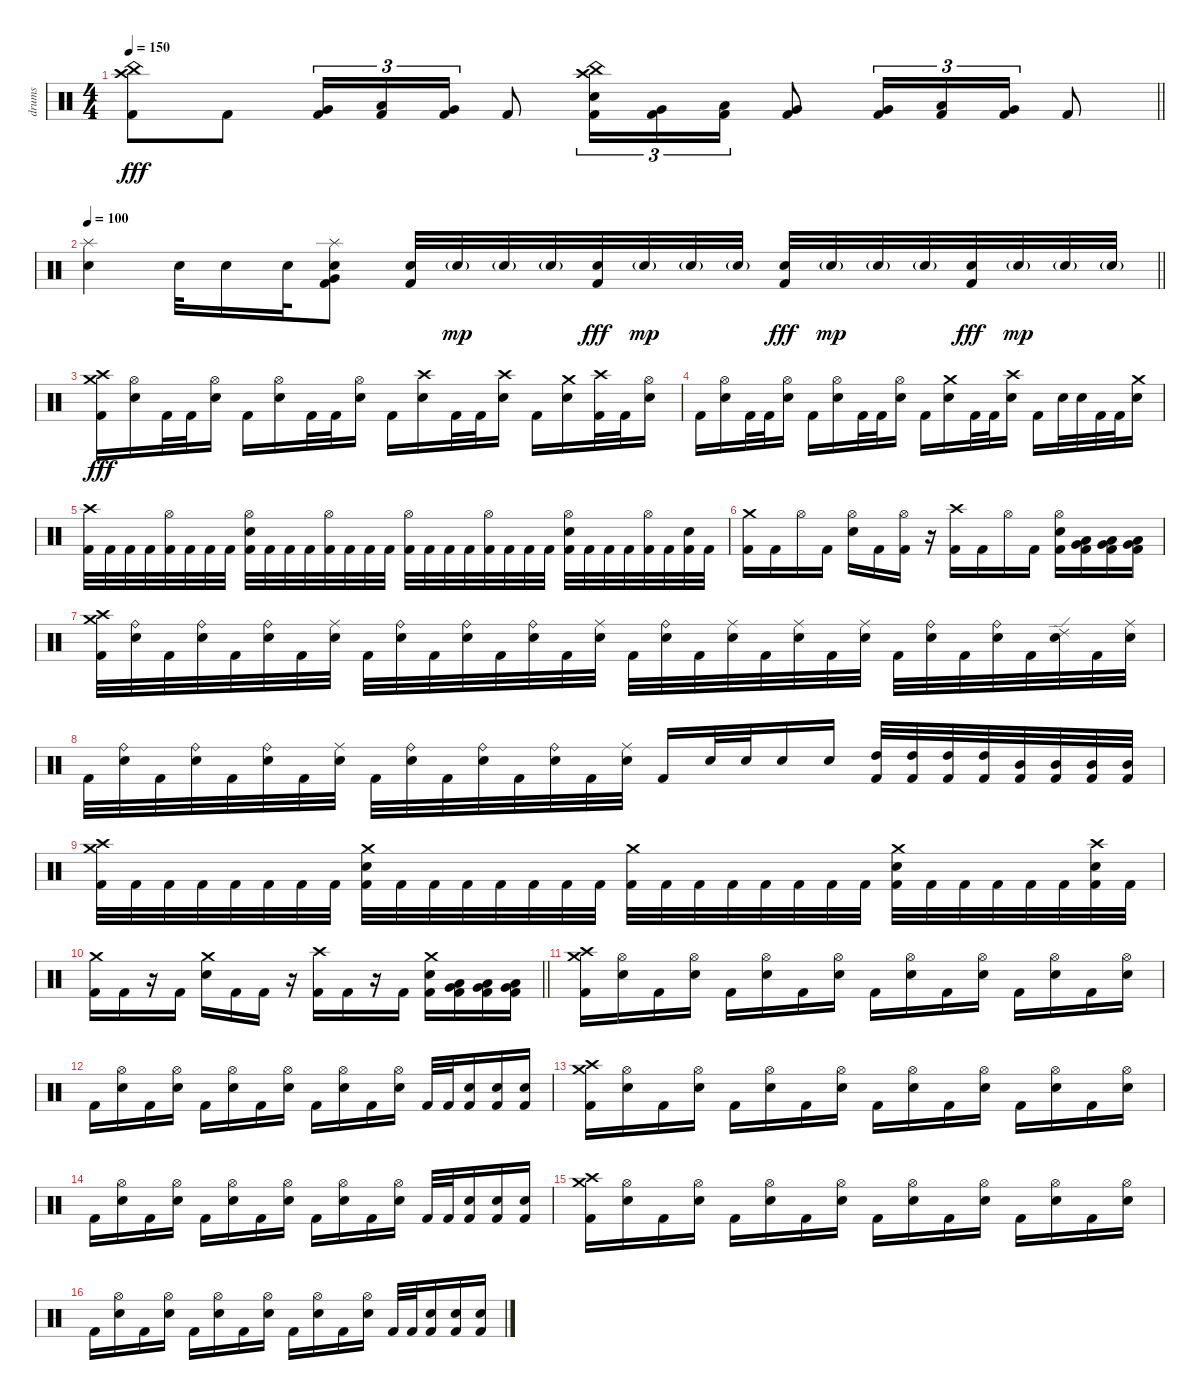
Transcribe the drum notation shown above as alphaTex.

\track ("drums" "drums") {instrument percussion}
\staff {score}
\articulation defaults
\ts (4 4)
\tempo 150
\clef neutral
\barLineRight lightlight
\ks c
("China (hit)" "Crash high (hit)" "Kick (hit) 2").8{dy fff} "Kick (hit) 2".8 ("Very Low Tom (hit)" "Kick (hit) 2").16{tu (3 2)} ("Low Floor Tom (hit)" "Kick (hit) 2").16{tu (3 2)} ("Very Low Tom (hit)" "Kick (hit) 2").16{tu (3 2)} "Kick (hit) 2".8 ("China (hit)" "Crash high (hit)" "Electric Snare (hit)" "Kick (hit) 2").16{tu (3 2)} ("Very Low Tom (hit)" "Kick (hit) 2").16{tu (3 2)} ("Low Floor Tom (hit)" "Kick (hit) 2").16{tu (3 2)} ("Very Low Tom (hit)" "Kick (hit) 2").8 ("Very Low Tom (hit)" "Kick (hit) 2").16{tu (3 2)} ("Low Floor Tom (hit)" "Kick (hit) 2").16{tu (3 2)} ("Very Low Tom (hit)" "Kick (hit) 2").16{tu (3 2)} "Kick (hit) 2".8 |
\section ("" "")
\tempo 100
\barLineRight lightlight
("Splash (hit)" "Electric Snare (hit)").4 "Electric Snare (hit)".32 "Electric Snare (hit)".16 "Electric Snare (hit)".32 ("Splash (hit)" "Electric Snare (hit)" "Very Low Tom (hit)" "Kick (hit) 2").8 ("Electric Snare (hit)" "Kick (hit) 2").32 "Electric Snare (hit)"{g}.32{dy mp} "Electric Snare (hit)"{g}.32 "Electric Snare (hit)"{g}.32 ("Electric Snare (hit)" "Kick (hit) 2").32{dy fff} "Electric Snare (hit)"{g}.32{dy mp} "Electric Snare (hit)"{g}.32 "Electric Snare (hit)"{g}.32 ("Electric Snare (hit)" "Kick (hit) 2").32{dy fff} "Electric Snare (hit)"{g}.32{dy mp} "Electric Snare (hit)"{g}.32 "Electric Snare (hit)"{g}.32 ("Electric Snare (hit)" "Kick (hit) 2").32{dy fff} "Electric Snare (hit)"{g}.32{dy mp} "Electric Snare (hit)"{g}.32 "Electric Snare (hit)"{g}.32 |
\section ("" "")
("Crash high (hit)" "Crash medium (hit)" "Kick (hit) 2").16{dy fff} ("Hi-Hat (open)" "Electric Snare (hit)").16 "Kick (hit) 2".32 "Kick (hit) 2".32 ("Hi-Hat (open)" "Electric Snare (hit)").16 "Kick (hit) 2".16 ("Hi-Hat (open)" "Electric Snare (hit)").16 "Kick (hit) 2".32 "Kick (hit) 2".32 ("Hi-Hat (open)" "Electric Snare (hit)").16 "Kick (hit) 2".16 ("Crash high (hit)" "Electric Snare (hit)").16 "Kick (hit) 2".32 "Kick (hit) 2".32 ("Crash high (hit)" "Electric Snare (hit)").16 "Kick (hit) 2".16 ("Crash medium (hit)" "Electric Snare (hit)").16 ("Crash high (hit)" "Kick (hit) 2").32 "Kick (hit) 2".32 ("Hi-Hat (open)" "Electric Snare (hit)").16 |
"Kick (hit) 2".16 ("Hi-Hat (open)" "Electric Snare (hit)").16 "Kick (hit) 2".32 "Kick (hit) 2".32 ("Hi-Hat (open)" "Electric Snare (hit)").16 "Kick (hit) 2".16 ("Hi-Hat (open)" "Electric Snare (hit)").16 "Kick (hit) 2".32 "Kick (hit) 2".32 ("Hi-Hat (open)" "Electric Snare (hit)").16 "Kick (hit) 2".16 ("Crash medium (hit)" "Electric Snare (hit)").16 "Kick (hit) 2".32 "Kick (hit) 2".32 ("Crash high (hit)" "Electric Snare (hit)").16 "Kick (hit) 2".16 "Electric Snare (hit)".32 "Electric Snare (hit)".32 "Kick (hit) 2".32 "Kick (hit) 2".32 ("Crash medium (hit)" "Electric Snare (hit)").16 |
("Crash high (hit)" "Kick (hit) 2").32 "Kick (hit) 2".32 "Kick (hit) 2".32 "Kick (hit) 2".32 ("Hi-Hat (open)" "Kick (hit) 2").32 "Kick (hit) 2".32 "Kick (hit) 2".32 "Kick (hit) 2".32 ("Hi-Hat (open)" "Electric Snare (hit)" "Kick (hit) 2").32 "Kick (hit) 2".32 "Kick (hit) 2".32 "Kick (hit) 2".32 ("Hi-Hat (open)" "Kick (hit) 2").32 "Kick (hit) 2".32 "Kick (hit) 2".32 "Kick (hit) 2".32 ("Hi-Hat (open)" "Kick (hit) 2").32 "Kick (hit) 2".32 "Kick (hit) 2".32 "Kick (hit) 2".32 ("Hi-Hat (open)" "Kick (hit) 2").32 "Kick (hit) 2".32 "Kick (hit) 2".32 "Kick (hit) 2".32 ("Hi-Hat (open)" "Electric Snare (hit)" "Kick (hit) 2").32 "Kick (hit) 2".32 "Kick (hit) 2".32 "Kick (hit) 2".32 ("Hi-Hat (open)" "Kick (hit) 2").32 "Kick (hit) 2".32 ("Electric Snare (hit)" "Kick (hit) 2").32 "Kick (hit) 2".32 |
("Crash medium (hit)" "Kick (hit) 2").16 "Kick (hit) 2".16 "Hi-Hat (open)".16 "Kick (hit) 2".16 ("Hi-Hat (open)" "Electric Snare (hit)").16 "Kick (hit) 2".16 ("Hi-Hat (open)" "Kick (hit) 2").16 r.16 ("Crash high (hit)" "Kick (hit) 2").16 "Kick (hit) 2".16 "Hi-Hat (open)".16 "Kick (hit) 2".16 ("Hi-Hat (open)" "Electric Snare (hit)" "Kick (hit) 2").16 ("Very Low Tom (hit)" "Low Floor Tom (hit)" "Kick (hit) 2").16 ("Very Low Tom (hit)" "Low Floor Tom (hit)" "Kick (hit) 2").16 ("Very Low Tom (hit)" "Low Floor Tom (hit)" "Kick (hit) 2").16 |
("Crash high (hit)" "Crash medium (hit)" "Kick (hit) 2").32 ("Ride (bell)" "Electric Snare (hit)").32 "Kick (hit) 2".32 ("Ride (bell)" "Electric Snare (hit)").32 "Kick (hit) 2".32 ("Ride (bell)" "Electric Snare (hit)").32 "Kick (hit) 2".32 ("Ride (middle)" "Electric Snare (hit)").32 "Kick (hit) 2".32 ("Ride (bell)" "Electric Snare (hit)").32 "Kick (hit) 2".32 ("Ride (bell)" "Electric Snare (hit)").32 "Kick (hit) 2".32 ("Ride (bell)" "Electric Snare (hit)").32 "Kick (hit) 2".32 ("Ride (middle)" "Electric Snare (hit)").32 "Kick (hit) 2".32 ("Ride (bell)" "Electric Snare (hit)").32 "Kick (hit) 2".32 ("Ride (middle)" "Electric Snare (hit)").32 "Kick (hit) 2".32 ("Ride (middle)" "Electric Snare (hit)").32 "Kick (hit) 2".32 ("Ride (middle)" "Electric Snare (hit)").32 "Kick (hit) 2".32 ("Ride (bell)" "Electric Snare (hit)").32 "Kick (hit) 2".32 ("Ride (bell)" "Electric Snare (hit)").32 "Kick (hit) 2".32 ("Ride (edge) 2" "Electric Snare (hit)").32 "Kick (hit) 2".32 ("Ride (middle)" "Electric Snare (hit)").32 |
"Kick (hit) 2".32 ("Ride (bell)" "Electric Snare (hit)").32 "Kick (hit) 2".32 ("Ride (bell)" "Electric Snare (hit)").32 "Kick (hit) 2".32 ("Ride (bell)" "Electric Snare (hit)").32 "Kick (hit) 2".32 ("Ride (middle)" "Electric Snare (hit)").32 "Kick (hit) 2".32 ("Ride (bell)" "Electric Snare (hit)").32 "Kick (hit) 2".32 ("Ride (bell)" "Electric Snare (hit)").32 "Kick (hit) 2".32 ("Ride (bell)" "Electric Snare (hit)").32 "Kick (hit) 2".32 ("Ride (middle)" "Electric Snare (hit)").32 "Kick (hit) 2".16 "Electric Snare (hit)".32 "Electric Snare (hit)".32 "Electric Snare (hit)".16 "Electric Snare (hit)".16 ("High Tom (hit)" "Kick (hit) 2").32 ("High Tom (hit)" "Kick (hit) 2").32 ("High Tom (hit)" "Kick (hit) 2").32 ("High Tom (hit)" "Kick (hit) 2").32 ("Mid Tom (hit)" "Kick (hit) 2").32 ("Mid Tom (hit)" "Kick (hit) 2").32 ("Mid Tom (hit)" "Kick (hit) 2").32 ("Mid Tom (hit)" "Kick (hit) 2").32 |
("Crash high (hit)" "Crash medium (hit)" "Kick (hit) 2").32 "Kick (hit) 2".32 "Kick (hit) 2".32 "Kick (hit) 2".32 "Kick (hit) 2".32 "Kick (hit) 2".32 "Kick (hit) 2".32 "Kick (hit) 2".32 ("Crash medium (hit)" "Electric Snare (hit)" "Kick (hit) 2").32 "Kick (hit) 2".32 "Kick (hit) 2".32 "Kick (hit) 2".32 "Kick (hit) 2".32 "Kick (hit) 2".32 "Kick (hit) 2".32 "Kick (hit) 2".32 ("Crash medium (hit)" "Kick (hit) 2").32 "Kick (hit) 2".32 "Kick (hit) 2".32 "Kick (hit) 2".32 "Kick (hit) 2".32 "Kick (hit) 2".32 "Kick (hit) 2".32 "Kick (hit) 2".32 ("Crash medium (hit)" "Electric Snare (hit)" "Kick (hit) 2").32 "Kick (hit) 2".32 "Kick (hit) 2".32 "Kick (hit) 2".32 "Kick (hit) 2".32 "Kick (hit) 2".32 ("Crash high (hit)" "Electric Snare (hit)" "Kick (hit) 2").32 "Kick (hit) 2".32 |
\barLineRight lightlight
("Crash medium (hit)" "Kick (hit) 2").16 "Kick (hit) 2".16 r.16 "Kick (hit) 2".16 ("Crash medium (hit)" "Electric Snare (hit)").16 "Kick (hit) 2".16 "Kick (hit) 2".16 r.16 ("Crash high (hit)" "Kick (hit) 2").16 "Kick (hit) 2".16 r.16 "Kick (hit) 2".16 ("Crash medium (hit)" "Electric Snare (hit)" "Kick (hit) 2").16 ("Very Low Tom (hit)" "Low Floor Tom (hit)" "Kick (hit) 2").16 ("Very Low Tom (hit)" "Low Floor Tom (hit)" "Kick (hit) 2").16 ("Very Low Tom (hit)" "Low Floor Tom (hit)" "Kick (hit) 2").16 |
\section ("" "")
("Crash high (hit)" "Crash medium (hit)" "Kick (hit) 2").16 ("Hi-Hat (open)" "Electric Snare (hit)").16 "Kick (hit) 2".16 ("Hi-Hat (open)" "Electric Snare (hit)").16 "Kick (hit) 2".16 ("Hi-Hat (open)" "Electric Snare (hit)").16 "Kick (hit) 2".16 ("Hi-Hat (open)" "Electric Snare (hit)").16 "Kick (hit) 2".16 ("Hi-Hat (open)" "Electric Snare (hit)").16 "Kick (hit) 2".16 ("Hi-Hat (open)" "Electric Snare (hit)").16 "Kick (hit) 2".16 ("Hi-Hat (open)" "Electric Snare (hit)").16 "Kick (hit) 2".16 ("Hi-Hat (open)" "Electric Snare (hit)").16 |
"Kick (hit) 2".16 ("Hi-Hat (open)" "Electric Snare (hit)").16 "Kick (hit) 2".16 ("Hi-Hat (open)" "Electric Snare (hit)").16 "Kick (hit) 2".16 ("Hi-Hat (open)" "Electric Snare (hit)").16 "Kick (hit) 2".16 ("Hi-Hat (open)" "Electric Snare (hit)").16 "Kick (hit) 2".16 ("Hi-Hat (open)" "Electric Snare (hit)").16 "Kick (hit) 2".16 ("Hi-Hat (open)" "Electric Snare (hit)").16 "Kick (hit) 2".32 "Kick (hit) 2".32 ("Electric Snare (hit)" "Kick (hit) 2").16 ("Electric Snare (hit)" "Kick (hit) 2").16 ("Electric Snare (hit)" "Kick (hit) 2").16 |
("Crash high (hit)" "Crash medium (hit)" "Kick (hit) 2").16 ("Hi-Hat (open)" "Electric Snare (hit)").16 "Kick (hit) 2".16 ("Hi-Hat (open)" "Electric Snare (hit)").16 "Kick (hit) 2".16 ("Hi-Hat (open)" "Electric Snare (hit)").16 "Kick (hit) 2".16 ("Hi-Hat (open)" "Electric Snare (hit)").16 "Kick (hit) 2".16 ("Hi-Hat (open)" "Electric Snare (hit)").16 "Kick (hit) 2".16 ("Hi-Hat (open)" "Electric Snare (hit)").16 "Kick (hit) 2".16 ("Hi-Hat (open)" "Electric Snare (hit)").16 "Kick (hit) 2".16 ("Hi-Hat (open)" "Electric Snare (hit)").16 |
"Kick (hit) 2".16 ("Hi-Hat (open)" "Electric Snare (hit)").16 "Kick (hit) 2".16 ("Hi-Hat (open)" "Electric Snare (hit)").16 "Kick (hit) 2".16 ("Hi-Hat (open)" "Electric Snare (hit)").16 "Kick (hit) 2".16 ("Hi-Hat (open)" "Electric Snare (hit)").16 "Kick (hit) 2".16 ("Hi-Hat (open)" "Electric Snare (hit)").16 "Kick (hit) 2".16 ("Hi-Hat (open)" "Electric Snare (hit)").16 "Kick (hit) 2".32 "Kick (hit) 2".32 ("Electric Snare (hit)" "Kick (hit) 2").16 ("Electric Snare (hit)" "Kick (hit) 2").16 ("Electric Snare (hit)" "Kick (hit) 2").16 |
("Crash high (hit)" "Crash medium (hit)" "Kick (hit) 2").16 ("Hi-Hat (open)" "Electric Snare (hit)").16 "Kick (hit) 2".16 ("Hi-Hat (open)" "Electric Snare (hit)").16 "Kick (hit) 2".16 ("Hi-Hat (open)" "Electric Snare (hit)").16 "Kick (hit) 2".16 ("Hi-Hat (open)" "Electric Snare (hit)").16 "Kick (hit) 2".16 ("Hi-Hat (open)" "Electric Snare (hit)").16 "Kick (hit) 2".16 ("Hi-Hat (open)" "Electric Snare (hit)").16 "Kick (hit) 2".16 ("Hi-Hat (open)" "Electric Snare (hit)").16 "Kick (hit) 2".16 ("Hi-Hat (open)" "Electric Snare (hit)").16 |
"Kick (hit) 2".16 ("Hi-Hat (open)" "Electric Snare (hit)").16 "Kick (hit) 2".16 ("Hi-Hat (open)" "Electric Snare (hit)").16 "Kick (hit) 2".16 ("Hi-Hat (open)" "Electric Snare (hit)").16 "Kick (hit) 2".16 ("Hi-Hat (open)" "Electric Snare (hit)").16 "Kick (hit) 2".16 ("Hi-Hat (open)" "Electric Snare (hit)").16 "Kick (hit) 2".16 ("Hi-Hat (open)" "Electric Snare (hit)").16 "Kick (hit) 2".32 "Kick (hit) 2".32 ("Electric Snare (hit)" "Kick (hit) 2").16 ("Electric Snare (hit)" "Kick (hit) 2").16 ("Electric Snare (hit)" "Kick (hit) 2").16
